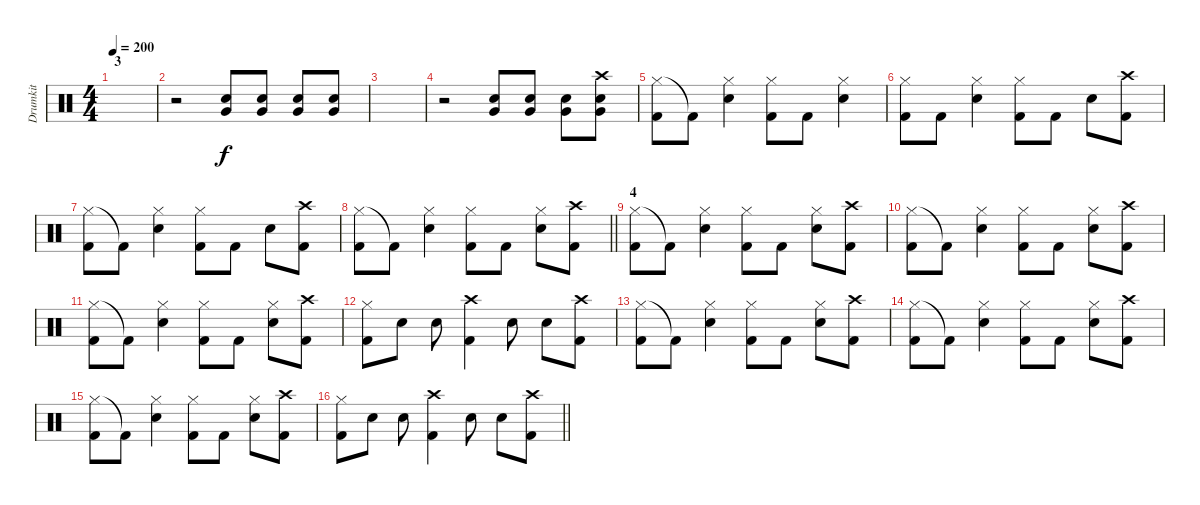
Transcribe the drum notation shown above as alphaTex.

\track ("Drumkit" "Drumkit") {instrument percussion}
\staff {score}
\articulation defaults
\ts (4 4)
\section ("" "3")
\tempo 200
\clef neutral
\ks c
|
r.2 ("Very Low Tom (hit)" "Snare (hit) 2").8 ("Very Low Tom (hit)" "Snare (hit) 2").8 ("Very Low Tom (hit)" "Snare (hit) 2").8 ("Very Low Tom (hit)" "Snare (hit) 2").8 |
|
r.2 ("Very Low Tom (hit)" "Snare (hit) 2").8 ("Very Low Tom (hit)" "Snare (hit) 2").8 ("Very Low Tom (hit)" "Snare (hit) 2").8 ("Crash high (hit)" "Very Low Tom (hit)" "Snare (hit) 2").8 |
("Hi-Hat (closed)" "Kick (hit) 2").8 "Kick (hit) 2"{t}.8 ("Hi-Hat (closed)" "Snare (hit) 2").4 ("Hi-Hat (closed)" "Kick (hit) 2").8 "Kick (hit) 2".8 ("Hi-Hat (closed)" "Snare (hit) 2").4 |
("Hi-Hat (closed)" "Kick (hit) 2").8 "Kick (hit) 2".8 ("Hi-Hat (closed)" "Snare (hit) 2").4 ("Hi-Hat (closed)" "Kick (hit) 2").8 "Kick (hit) 2".8 "Snare (hit) 2".8 ("Crash high (hit)" "Kick (hit) 2").8 |
("Hi-Hat (closed)" "Kick (hit) 2").8 "Kick (hit) 2"{t}.8 ("Hi-Hat (closed)" "Snare (hit) 2").4 ("Hi-Hat (closed)" "Kick (hit) 2").8 "Kick (hit) 2".8 "Snare (hit) 2".8 ("Crash high (hit)" "Kick (hit) 2").8 |
\barLineRight lightlight
("Hi-Hat (closed)" "Kick (hit) 2").8 "Kick (hit) 2"{t}.8 ("Hi-Hat (closed)" "Snare (hit) 2").4 ("Hi-Hat (closed)" "Kick (hit) 2").8 "Kick (hit) 2".8 ("Hi-Hat (closed)" "Snare (hit) 2").8 ("Crash high (hit)" "Kick (hit) 2").8 |
\section ("" "4")
("Hi-Hat (closed)" "Kick (hit) 2").8 "Kick (hit) 2"{t}.8 ("Hi-Hat (closed)" "Snare (hit) 2").4 ("Hi-Hat (closed)" "Kick (hit) 2").8 "Kick (hit) 2".8 ("Hi-Hat (closed)" "Snare (hit) 2").8 ("Crash high (hit)" "Kick (hit) 2").8 |
("Hi-Hat (closed)" "Kick (hit) 2").8 "Kick (hit) 2"{t}.8 ("Hi-Hat (closed)" "Snare (hit) 2").4 ("Hi-Hat (closed)" "Kick (hit) 2").8 "Kick (hit) 2".8 ("Hi-Hat (closed)" "Snare (hit) 2").8 ("Crash high (hit)" "Kick (hit) 2").8 |
("Hi-Hat (closed)" "Kick (hit) 2").8 "Kick (hit) 2"{t}.8 ("Hi-Hat (closed)" "Snare (hit) 2").4 ("Hi-Hat (closed)" "Kick (hit) 2").8 "Kick (hit) 2".8 ("Hi-Hat (closed)" "Snare (hit) 2").8 ("Crash high (hit)" "Kick (hit) 2").8 |
("Hi-Hat (closed)" "Kick (hit) 2").8 "Snare (hit) 2".8 "Snare (hit) 2".8 ("Crash high (hit)" "Kick (hit) 2").4 "Snare (hit) 2".8 "Snare (hit) 2".8 ("Crash high (hit)" "Kick (hit) 2").8 |
("Hi-Hat (closed)" "Kick (hit) 2").8 "Kick (hit) 2"{t}.8 ("Hi-Hat (closed)" "Snare (hit) 2").4 ("Hi-Hat (closed)" "Kick (hit) 2").8 "Kick (hit) 2".8 ("Hi-Hat (closed)" "Snare (hit) 2").8 ("Crash high (hit)" "Kick (hit) 2").8 |
("Hi-Hat (closed)" "Kick (hit) 2").8 "Kick (hit) 2"{t}.8 ("Hi-Hat (closed)" "Snare (hit) 2").4 ("Hi-Hat (closed)" "Kick (hit) 2").8 "Kick (hit) 2".8 ("Hi-Hat (closed)" "Snare (hit) 2").8 ("Crash high (hit)" "Kick (hit) 2").8 |
("Hi-Hat (closed)" "Kick (hit) 2").8 "Kick (hit) 2"{t}.8 ("Hi-Hat (closed)" "Snare (hit) 2").4 ("Hi-Hat (closed)" "Kick (hit) 2").8 "Kick (hit) 2".8 ("Hi-Hat (closed)" "Snare (hit) 2").8 ("Crash high (hit)" "Kick (hit) 2").8 |
\barLineRight lightlight
("Hi-Hat (closed)" "Kick (hit) 2").8 "Snare (hit) 2".8 "Snare (hit) 2".8 ("Crash high (hit)" "Kick (hit) 2").4 "Snare (hit) 2".8 "Snare (hit) 2".8 ("Crash high (hit)" "Kick (hit) 2").8
